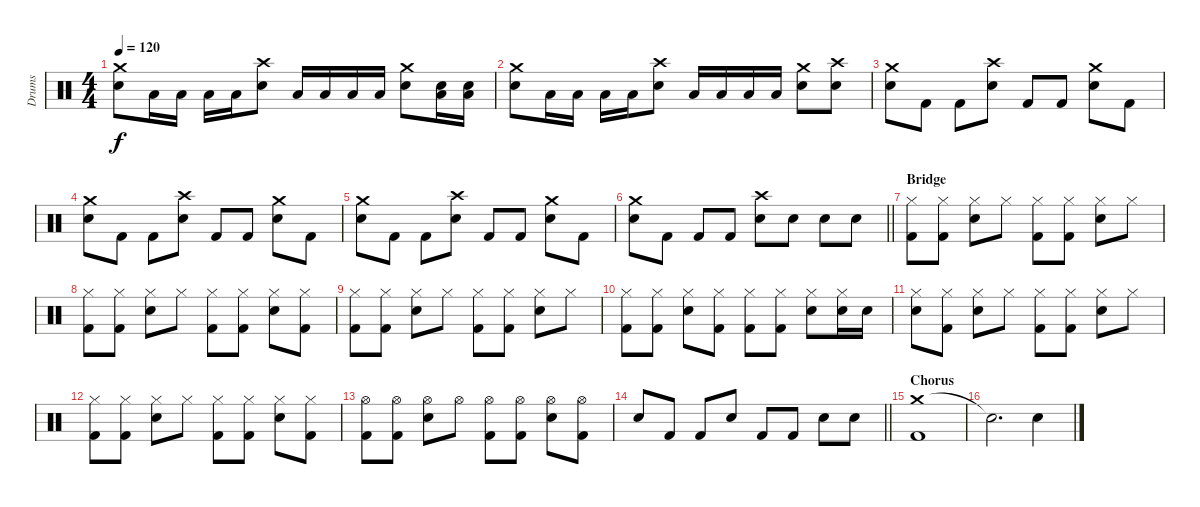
\track ("Drums" "Drums") {instrument percussion}
\staff {score}
\articulation defaults
\ts (4 4)
\tempo 120
\clef neutral
\ks c
("Crash medium (hit)" "Electric Snare (hit)").8{dy f} "Low Tom (hit)".16 "Low Tom (hit)".16 "Low Tom (hit)".16 "Low Tom (hit)".16 ("Crash high (hit)" "Electric Snare (hit)").8 "Low Tom (hit)".16 "Low Tom (hit)".16 "Low Tom (hit)".16 "Low Tom (hit)".16 ("Crash medium (hit)" "Electric Snare (hit)").8 ("Low Tom (hit)" "Snare (hit)").16 ("Low Tom (hit)" "Snare (hit)").16 |
("Crash medium (hit)" "Electric Snare (hit)").8 "Low Tom (hit)".16 "Low Tom (hit)".16 "Low Tom (hit)".16 "Low Tom (hit)".16 ("Crash high (hit)" "Electric Snare (hit)").8 "Low Tom (hit)".16 "Low Tom (hit)".16 "Low Tom (hit)".16 "Low Tom (hit)".16 ("Crash medium (hit)" "Electric Snare (hit)").8 ("Crash high (hit)" "Electric Snare (hit)").8 |
("Crash medium (hit)" "Electric Snare (hit)").8 "Kick (hit) 2".8 "Kick (hit) 2".8 ("Crash high (hit)" "Electric Snare (hit)").8 "Kick (hit) 2".8 "Kick (hit) 2".8 ("Crash medium (hit)" "Electric Snare (hit)").8 "Kick (hit) 2".8 |
("Crash medium (hit)" "Electric Snare (hit)").8 "Kick (hit) 2".8 "Kick (hit) 2".8 ("Crash high (hit)" "Electric Snare (hit)").8 "Kick (hit) 2".8 "Kick (hit) 2".8 ("Crash medium (hit)" "Electric Snare (hit)").8 "Kick (hit) 2".8 |
("Crash medium (hit)" "Electric Snare (hit)").8 "Kick (hit) 2".8 "Kick (hit) 2".8 ("Crash high (hit)" "Electric Snare (hit)").8 "Kick (hit) 2".8 "Kick (hit) 2".8 ("Crash medium (hit)" "Electric Snare (hit)").8 "Kick (hit) 2".8 |
\barLineRight lightlight
("Crash medium (hit)" "Electric Snare (hit)").8 "Kick (hit) 2".8 "Kick (hit) 2".8 "Kick (hit) 2".8 ("Crash high (hit)" "Electric Snare (hit)").8 "Electric Snare (hit)".8 "Electric Snare (hit)".8 "Electric Snare (hit)".8 |
\section ("" "Bridge")
("Hi-Hat (closed)" "Kick (hit) 2").8 ("Hi-Hat (closed)" "Kick (hit) 2").8 ("Hi-Hat (closed)" "Electric Snare (hit)").8 "Hi-Hat (closed)".8 ("Hi-Hat (closed)" "Kick (hit) 2").8 ("Hi-Hat (closed)" "Kick (hit) 2").8 ("Hi-Hat (closed)" "Electric Snare (hit)").8 "Hi-Hat (closed)".8 |
("Hi-Hat (closed)" "Kick (hit) 2").8 ("Hi-Hat (closed)" "Kick (hit) 2").8 ("Hi-Hat (closed)" "Electric Snare (hit)").8 "Hi-Hat (closed)".8 ("Hi-Hat (closed)" "Kick (hit) 2").8 ("Hi-Hat (closed)" "Kick (hit) 2").8 ("Hi-Hat (closed)" "Electric Snare (hit)").8 ("Hi-Hat (closed)" "Kick (hit) 2").8 |
("Hi-Hat (closed)" "Kick (hit) 2").8 ("Hi-Hat (closed)" "Kick (hit) 2").8 ("Hi-Hat (closed)" "Electric Snare (hit)").8 "Hi-Hat (closed)".8 ("Hi-Hat (closed)" "Kick (hit) 2").8 ("Hi-Hat (closed)" "Kick (hit) 2").8 ("Hi-Hat (closed)" "Electric Snare (hit)").8 "Hi-Hat (closed)".8 |
("Hi-Hat (closed)" "Kick (hit) 2").8 ("Hi-Hat (closed)" "Kick (hit) 2").8 ("Hi-Hat (closed)" "Electric Snare (hit)").8 ("Hi-Hat (closed)" "Kick (hit) 2").8 ("Hi-Hat (closed)" "Kick (hit) 2").8 ("Hi-Hat (closed)" "Kick (hit) 2").8 ("Hi-Hat (closed)" "Electric Snare (hit)").8 ("Hi-Hat (closed)" "Electric Snare (hit)").16 "Electric Snare (hit)".16 |
("Hi-Hat (closed)" "Electric Snare (hit)").8 ("Hi-Hat (closed)" "Kick (hit) 2").8 ("Hi-Hat (closed)" "Electric Snare (hit)").8 "Hi-Hat (closed)".8 ("Hi-Hat (closed)" "Kick (hit) 2").8 ("Hi-Hat (closed)" "Kick (hit) 2").8 ("Hi-Hat (closed)" "Electric Snare (hit)").8 "Hi-Hat (closed)".8 |
("Hi-Hat (closed)" "Kick (hit) 2").8 ("Hi-Hat (closed)" "Kick (hit) 2").8 ("Hi-Hat (closed)" "Electric Snare (hit)").8 "Hi-Hat (closed)".8 ("Hi-Hat (closed)" "Kick (hit) 2").8 ("Hi-Hat (closed)" "Kick (hit) 2").8 ("Hi-Hat (closed)" "Electric Snare (hit)").8 ("Hi-Hat (closed)" "Kick (hit) 2").8 |
("Hi-Hat (open)" "Kick (hit) 2").8 ("Hi-Hat (open)" "Kick (hit) 2").8 ("Hi-Hat (open)" "Electric Snare (hit)").8 "Hi-Hat (open)".8 ("Hi-Hat (open)" "Kick (hit) 2").8 ("Hi-Hat (open)" "Kick (hit) 2").8 ("Hi-Hat (open)" "Electric Snare (hit)").8 ("Hi-Hat (open)" "Kick (hit) 2").8 |
\barLineRight lightlight "Electric Snare (hit)".8 "Kick (hit) 2".8 "Kick (hit) 2".8 "Electric Snare (hit)".8 "Kick (hit) 2".8 "Kick (hit) 2".8 "Electric Snare (hit)".8 "Electric Snare (hit)".8
|
\section ("" "Chorus")
("Crash medium (hit)" "Kick (hit) 2").1 |
"Snare (hit)"{t}.2{d} "Electric Snare (hit)".4
